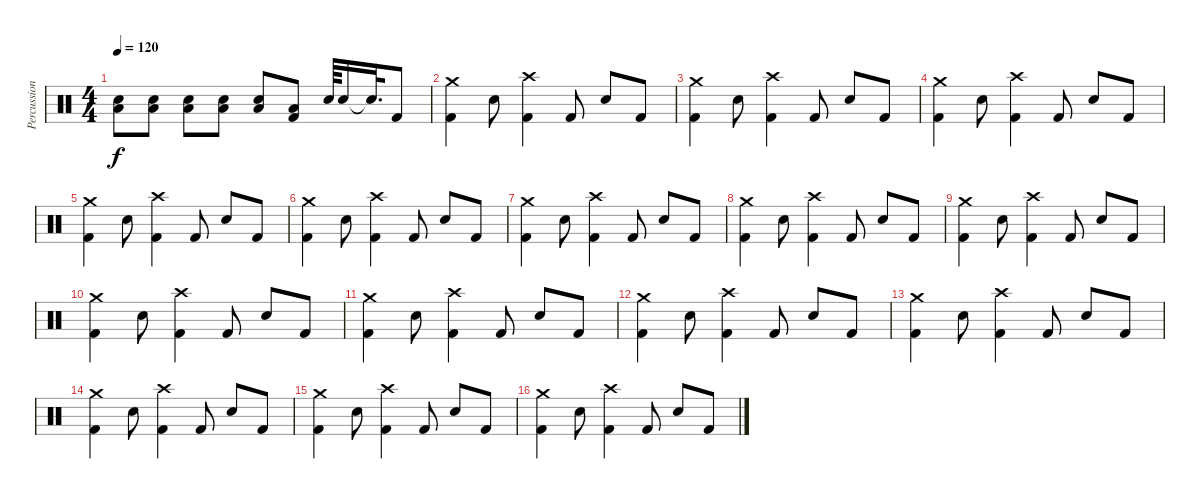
\track ("Percussion" "Percussion") {instrument percussion}
\staff {score}
\articulation defaults
\ts (4 4)
\tempo 120
\clef neutral
\ks c
("Low Floor Tom (hit)" "Electric Snare (hit)").8{dy f} ("Low Floor Tom (hit)" "Electric Snare (hit)").8 ("Low Floor Tom (hit)" "Electric Snare (hit)").8 ("Low Floor Tom (hit)" "Electric Snare (hit)").8 ("Low Floor Tom (hit)" "Electric Snare (hit)").8 ("Low Floor Tom (hit)" "Kick (hit) 2").8 "Electric Snare (hit)".64 "Electric Snare (hit)".16 "Snare (hit)"{t}.32{d} "Kick (hit) 2".8 |
("Crash medium (hit)" "Kick (hit) 2").4 "Electric Snare (hit)".8 ("Crash high (hit)" "Kick (hit) 2").4 "Kick (hit) 2".8 "Electric Snare (hit)".8 "Kick (hit) 2".8 |
("Crash medium (hit)" "Kick (hit) 2").4 "Electric Snare (hit)".8 ("Crash high (hit)" "Kick (hit) 2").4 "Kick (hit) 2".8 "Electric Snare (hit)".8 "Kick (hit) 2".8 |
("Crash medium (hit)" "Kick (hit) 2").4 "Electric Snare (hit)".8 ("Crash high (hit)" "Kick (hit) 2").4 "Kick (hit) 2".8 "Electric Snare (hit)".8 "Kick (hit) 2".8 |
("Crash medium (hit)" "Kick (hit) 2").4 "Electric Snare (hit)".8 ("Crash high (hit)" "Kick (hit) 2").4 "Kick (hit) 2".8 "Electric Snare (hit)".8 "Kick (hit) 2".8 |
("Crash medium (hit)" "Kick (hit) 2").4 "Electric Snare (hit)".8 ("Crash high (hit)" "Kick (hit) 2").4 "Kick (hit) 2".8 "Electric Snare (hit)".8 "Kick (hit) 2".8 |
("Crash medium (hit)" "Kick (hit) 2").4 "Electric Snare (hit)".8 ("Crash high (hit)" "Kick (hit) 2").4 "Kick (hit) 2".8 "Electric Snare (hit)".8 "Kick (hit) 2".8 |
("Crash medium (hit)" "Kick (hit) 2").4 "Electric Snare (hit)".8 ("Crash high (hit)" "Kick (hit) 2").4 "Kick (hit) 2".8 "Electric Snare (hit)".8 "Kick (hit) 2".8 |
("Crash medium (hit)" "Kick (hit) 2").4 "Electric Snare (hit)".8 ("Crash high (hit)" "Kick (hit) 2").4 "Kick (hit) 2".8 "Electric Snare (hit)".8 "Kick (hit) 2".8 |
("Crash medium (hit)" "Kick (hit) 2").4 "Electric Snare (hit)".8 ("Crash high (hit)" "Kick (hit) 2").4 "Kick (hit) 2".8 "Electric Snare (hit)".8 "Kick (hit) 2".8 |
("Crash medium (hit)" "Kick (hit) 2").4 "Electric Snare (hit)".8 ("Crash high (hit)" "Kick (hit) 2").4 "Kick (hit) 2".8 "Electric Snare (hit)".8 "Kick (hit) 2".8 |
("Crash medium (hit)" "Kick (hit) 2").4 "Electric Snare (hit)".8 ("Crash high (hit)" "Kick (hit) 2").4 "Kick (hit) 2".8 "Electric Snare (hit)".8 "Kick (hit) 2".8 |
("Crash medium (hit)" "Kick (hit) 2").4 "Electric Snare (hit)".8 ("Crash high (hit)" "Kick (hit) 2").4 "Kick (hit) 2".8 "Electric Snare (hit)".8 "Kick (hit) 2".8 |
("Crash medium (hit)" "Kick (hit) 2").4 "Electric Snare (hit)".8 ("Crash high (hit)" "Kick (hit) 2").4 "Kick (hit) 2".8 "Electric Snare (hit)".8 "Kick (hit) 2".8 |
("Crash medium (hit)" "Kick (hit) 2").4 "Electric Snare (hit)".8 ("Crash high (hit)" "Kick (hit) 2").4 "Kick (hit) 2".8 "Electric Snare (hit)".8 "Kick (hit) 2".8 |
("Crash medium (hit)" "Kick (hit) 2").4 "Electric Snare (hit)".8 ("Crash high (hit)" "Kick (hit) 2").4 "Kick (hit) 2".8 "Electric Snare (hit)".8 "Kick (hit) 2".8
